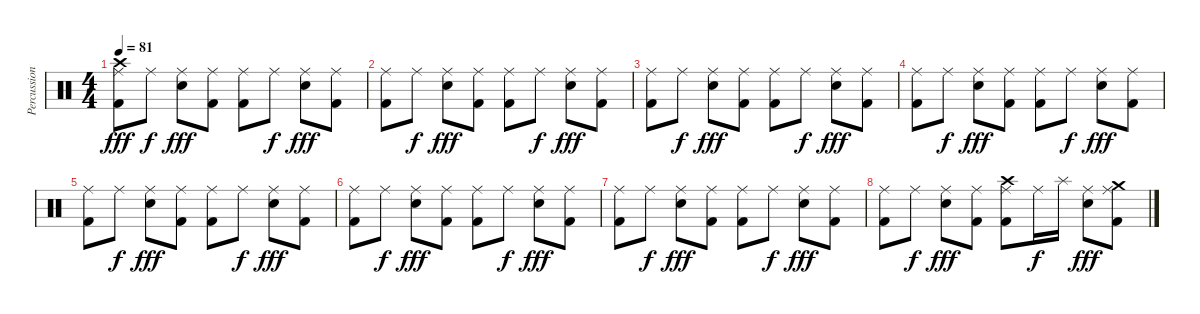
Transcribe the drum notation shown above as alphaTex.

\track ("Percussion" "Percussion") {instrument percussion}
\staff {score}
\articulation defaults
\ts (4 4)
\tempo 81
\clef neutral
\ks c
("Crash high (hit)" "Ride (middle)" "Kick (hit) 2").8{dy fff volume 5} "Ride (middle)".8{dy f} ("Ride (middle)" "Snare (hit) 2").8{dy fff} ("Ride (middle)" "Kick (hit) 2").8 ("Ride (middle)" "Kick (hit) 2").8 "Ride (middle)".8{dy f} ("Ride (middle)" "Snare (hit) 2").8{dy fff} ("Ride (middle)" "Kick (hit) 2").8 |
("Ride (middle)" "Kick (hit) 2").8{volume 4} "Ride (middle)".8{dy f} ("Ride (middle)" "Snare (hit) 2").8{dy fff} ("Ride (middle)" "Kick (hit) 2").8 ("Ride (middle)" "Kick (hit) 2").8 "Ride (middle)".8{dy f} ("Ride (middle)" "Snare (hit) 2").8{dy fff} ("Ride (middle)" "Kick (hit) 2").8 |
("Ride (middle)" "Kick (hit) 2").8{volume 3} "Ride (middle)".8{dy f} ("Ride (middle)" "Snare (hit) 2").8{dy fff} ("Ride (middle)" "Kick (hit) 2").8 ("Ride (middle)" "Kick (hit) 2").8 "Ride (middle)".8{dy f} ("Ride (middle)" "Snare (hit) 2").8{dy fff} ("Ride (middle)" "Kick (hit) 2").8 |
("Ride (middle)" "Kick (hit) 2").8{volume 2} "Ride (middle)".8{dy f} ("Ride (middle)" "Snare (hit) 2").8{dy fff} ("Ride (middle)" "Kick (hit) 2").8 ("Ride (middle)" "Kick (hit) 2").8 "Ride (middle)".8{dy f} ("Ride (middle)" "Snare (hit) 2").8{dy fff} ("Ride (middle)" "Kick (hit) 2").8 |
("Ride (middle)" "Kick (hit) 2").8{volume 1} "Ride (middle)".8{dy f} ("Ride (middle)" "Snare (hit) 2").8{dy fff} ("Ride (middle)" "Kick (hit) 2").8 ("Ride (middle)" "Kick (hit) 2").8 "Ride (middle)".8{dy f} ("Ride (middle)" "Snare (hit) 2").8{dy fff} ("Ride (middle)" "Kick (hit) 2").8 |
("Ride (middle)" "Kick (hit) 2").8 "Ride (middle)".8{dy f} ("Ride (middle)" "Snare (hit) 2").8{dy fff} ("Ride (middle)" "Kick (hit) 2").8 ("Ride (middle)" "Kick (hit) 2").8 "Ride (middle)".8{dy f} ("Ride (middle)" "Snare (hit) 2").8{dy fff} ("Ride (middle)" "Kick (hit) 2").8 |
("Ride (middle)" "Kick (hit) 2").8 "Ride (middle)".8{dy f} ("Ride (middle)" "Snare (hit) 2").8{dy fff} ("Ride (middle)" "Kick (hit) 2").8 ("Ride (middle)" "Kick (hit) 2").8 "Ride (middle)".8{dy f} ("Ride (middle)" "Snare (hit) 2").8{dy fff} ("Ride (middle)" "Kick (hit) 2").8 |
("Ride (middle)" "Kick (hit) 2").8 "Ride (middle)".8{dy f} ("Ride (middle)" "Snare (hit) 2").8{dy fff} ("Ride (middle)" "Kick (hit) 2").8 ("Crash high (hit)" "Ride (middle)" "Kick (hit) 2").8 "Ride (middle)".16{dy f} "Splash (hit)".16 ("Ride (middle)" "Snare (hit) 2").8{dy fff} ("Crash medium (hit)" "Ride (middle)" "Kick (hit) 2").8
